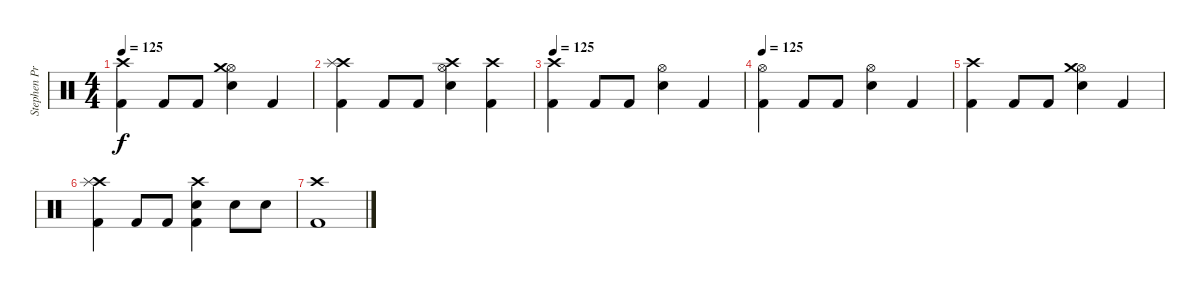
\track ("Stephen Priestly" "Stephen Pr") {instrument percussion}
\staff {score}
\articulation defaults
\ts (4 4)
\tempo 125
\clef neutral
\ks c
("Crash high (hit)" "Kick (hit) 2").4{dy f} "Kick (hit) 2".8 "Kick (hit) 2".8 ("Hi-Hat (open)" "Crash medium (hit)" "Snare (hit) 2").4 "Kick (hit) 2".4 |
("Crash high (hit)" "Splash (hit)" "Kick (hit) 2").4 "Kick (hit) 2".8 "Kick (hit) 2".8 ("Hi-Hat (open)" "Crash high (hit)" "Snare (hit) 2").4 ("Crash high (hit)" "Kick (hit) 2").4 |
\tempo 125
("Crash high (hit)" "Kick (hit) 2").4 "Kick (hit) 2".8 "Kick (hit) 2".8 ("Hi-Hat (open)" "Snare (hit) 2").4 "Kick (hit) 2".4 |
\tempo 125
("Hi-Hat (open)" "Kick (hit) 2").4 "Kick (hit) 2".8 "Kick (hit) 2".8 ("Hi-Hat (open)" "Snare (hit) 2").4 "Kick (hit) 2".4 |
("Crash high (hit)" "Kick (hit) 2").4 "Kick (hit) 2".8 "Kick (hit) 2".8 ("Hi-Hat (open)" "Crash medium (hit)" "Snare (hit) 2").4 "Kick (hit) 2".4 |
("Crash high (hit)" "Splash (hit)" "Kick (hit) 2").4 "Kick (hit) 2".8 "Kick (hit) 2".8 ("Crash high (hit)" "Snare (hit) 2" "Kick (hit) 2").4 "Snare (hit) 2".8 "Snare (hit) 2".8 |
("Crash high (hit)" "Kick (hit) 2").1
